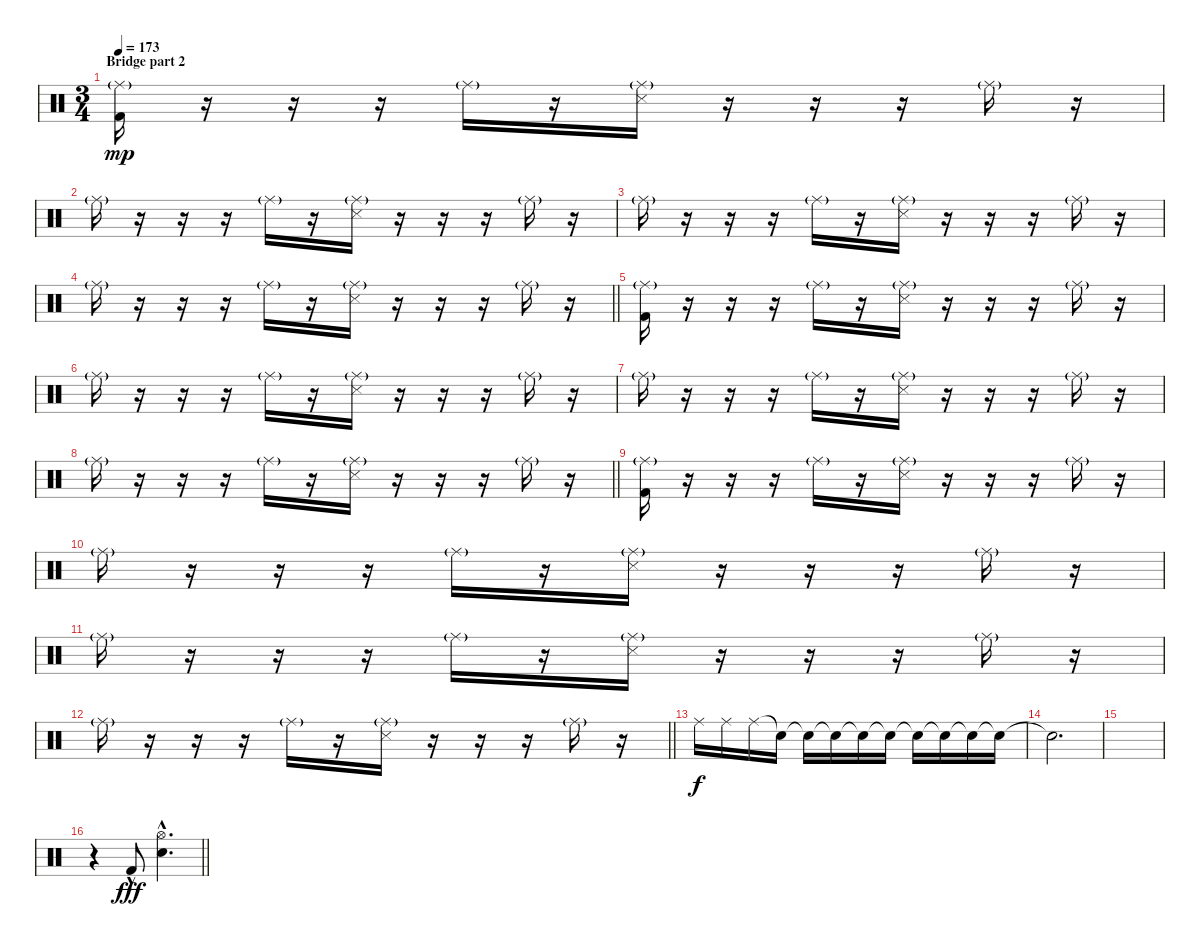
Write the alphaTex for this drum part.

\track (" " " ") {instrument percussion}
\staff {score}
\articulation defaults
\ts (3 4)
\section ("" "Bridge part 2")
\tempo 173
\clef neutral
\ks c
("Ride (middle)"{g} "Kick (hit) 2").16{dy mp} r.16 r.16 r.16 "Ride (middle)"{g}.16 r.16 ("Ride (middle)"{g} "Snare (side stick) 3").16 r.16 r.16 r.16 "Ride (middle)"{g}.16 r.16 |
"Ride (middle)"{g}.16 r.16 r.16 r.16 "Ride (middle)"{g}.16 r.16 ("Ride (middle)"{g} "Snare (side stick) 3").16 r.16 r.16 r.16 "Ride (middle)"{g}.16 r.16 |
"Ride (middle)"{g}.16 r.16 r.16 r.16 "Ride (middle)"{g}.16 r.16 ("Ride (middle)"{g} "Snare (side stick) 3").16 r.16 r.16 r.16 "Ride (middle)"{g}.16 r.16 |
\barLineRight lightlight "Ride (middle)"{g}.16
r.16 r.16 r.16 "Ride (middle)"{g}.16 r.16 ("Ride (middle)"{g} "Snare (side stick) 3").16 r.16 r.16 r.16 "Ride (middle)"{g}.16 r.16 |
("Ride (middle)"{g} "Kick (hit) 2").16 r.16 r.16 r.16 "Ride (middle)"{g}.16 r.16 ("Ride (middle)"{g} "Snare (side stick) 3").16 r.16 r.16 r.16 "Ride (middle)"{g}.16 r.16 |
"Ride (middle)"{g}.16 r.16 r.16 r.16 "Ride (middle)"{g}.16 r.16 ("Ride (middle)"{g} "Snare (side stick) 3").16 r.16 r.16 r.16 "Ride (middle)"{g}.16 r.16 |
"Ride (middle)"{g}.16 r.16 r.16 r.16 "Ride (middle)"{g}.16 r.16 ("Ride (middle)"{g} "Snare (side stick) 3").16 r.16 r.16 r.16 "Ride (middle)"{g}.16 r.16 |
\barLineRight lightlight "Ride (middle)"{g}.16
r.16 r.16 r.16 "Ride (middle)"{g}.16 r.16 ("Ride (middle)"{g} "Snare (side stick) 3").16 r.16 r.16 r.16 "Ride (middle)"{g}.16 r.16 |
("Ride (middle)"{g} "Kick (hit) 2").16 r.16 r.16 r.16 "Ride (middle)"{g}.16 r.16 ("Ride (middle)"{g} "Snare (side stick) 3").16 r.16 r.16 r.16 "Ride (middle)"{g}.16 r.16 |
"Ride (middle)"{g}.16 r.16 r.16 r.16 "Ride (middle)"{g}.16 r.16 ("Ride (middle)"{g} "Snare (side stick) 3").16 r.16 r.16 r.16 "Ride (middle)"{g}.16 r.16 |
"Ride (middle)"{g}.16 r.16 r.16 r.16 "Ride (middle)"{g}.16 r.16 ("Ride (middle)"{g} "Snare (side stick) 3").16 r.16 r.16 r.16 "Ride (middle)"{g}.16 r.16 |
\barLineRight lightlight "Ride (middle)"{g}.16
r.16 r.16 r.16 "Ride (middle)"{g}.16 r.16 ("Ride (middle)"{g} "Snare (side stick) 3").16 r.16 r.16 r.16 "Ride (middle)"{g}.16 r.16 |
"Ride (middle)".16{dy f} "Ride (middle)".16 "Ride (middle)".16 "Snare (hit)"{t}.16 "Snare (hit)"{t}.16 "Snare (hit)"{t}.16 "Snare (hit)"{t}.16 "Snare (hit)"{t}.16 "Snare (hit)"{t}.16 "Snare (hit)"{t}.16 "Snare (hit)"{t}.16 "Snare (hit)"{t}.16 |
"Snare (hit)"{t}.2{d} |
|
\barLineRight lightlight
r.4 "Kick (hit) 2"{hac}.8{dy fff} ("Hi-Hat (open)"{hac} "Electric Snare (hit)"{hac}).4{d}
